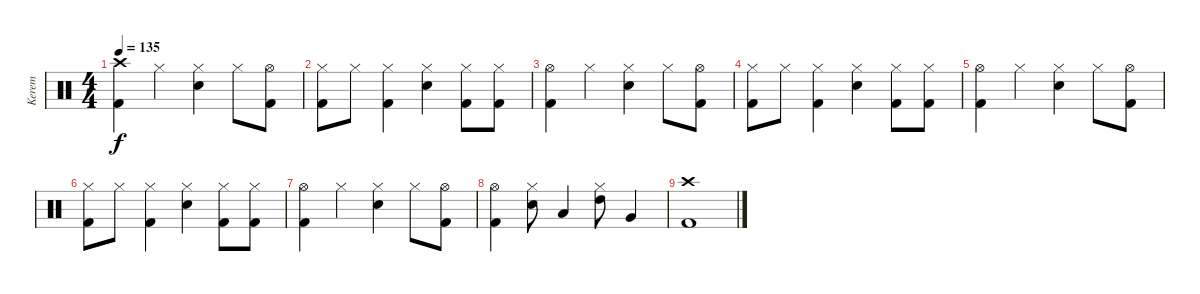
\track ("Kerem" "Kerem") {instrument percussion}
\staff {score}
\articulation defaults
\ts (4 4)
\tempo 135
\clef neutral
\ks c
("Crash high (hit)" "Kick (hit) 2").4{dy f} "Hi-Hat (closed)".4 ("Electric Snare (hit)" "Hi-Hat (closed)").4 "Hi-Hat (closed)".8 ("Hi-Hat (open)" "Kick (hit) 2").8 |
("Hi-Hat (closed)" "Kick (hit) 2").8 "Hi-Hat (closed)".8 ("Hi-Hat (closed)" "Kick (hit) 2").4 ("Electric Snare (hit)" "Hi-Hat (closed)").4 ("Hi-Hat (closed)" "Kick (hit) 2").8 ("Hi-Hat (closed)" "Kick (hit) 2").8 |
("Hi-Hat (open)" "Kick (hit) 2").4 "Hi-Hat (closed)".4 ("Electric Snare (hit)" "Hi-Hat (closed)").4 "Hi-Hat (closed)".8 ("Hi-Hat (open)" "Kick (hit) 2").8 |
("Hi-Hat (closed)" "Kick (hit) 2").8 "Hi-Hat (closed)".8 ("Hi-Hat (closed)" "Kick (hit) 2").4 ("Electric Snare (hit)" "Hi-Hat (closed)").4 ("Hi-Hat (closed)" "Kick (hit) 2").8 ("Hi-Hat (closed)" "Kick (hit) 2").8 |
("Hi-Hat (open)" "Kick (hit) 2").4 "Hi-Hat (closed)".4 ("Electric Snare (hit)" "Hi-Hat (closed)").4 "Hi-Hat (closed)".8 ("Hi-Hat (open)" "Kick (hit) 2").8 |
("Hi-Hat (closed)" "Kick (hit) 2").8 "Hi-Hat (closed)".8 ("Hi-Hat (closed)" "Kick (hit) 2").4 ("Electric Snare (hit)" "Hi-Hat (closed)").4 ("Hi-Hat (closed)" "Kick (hit) 2").8 ("Hi-Hat (closed)" "Kick (hit) 2").8 |
("Hi-Hat (open)" "Kick (hit) 2").4 "Hi-Hat (closed)".4 ("Electric Snare (hit)" "Hi-Hat (closed)").4 "Hi-Hat (closed)".8 ("Hi-Hat (open)" "Kick (hit) 2").8 |
("Kick (hit) 2" "Hi-Hat (open)").4 ("Electric Snare (hit)" "Hi-Hat (closed)").8 "Low Tom (hit)".4 ("High Tom (hit)" "Hi-Hat (closed)").8 "Very Low Tom (hit)".4 |
("Crash high (hit)" "Kick (hit) 2").1
